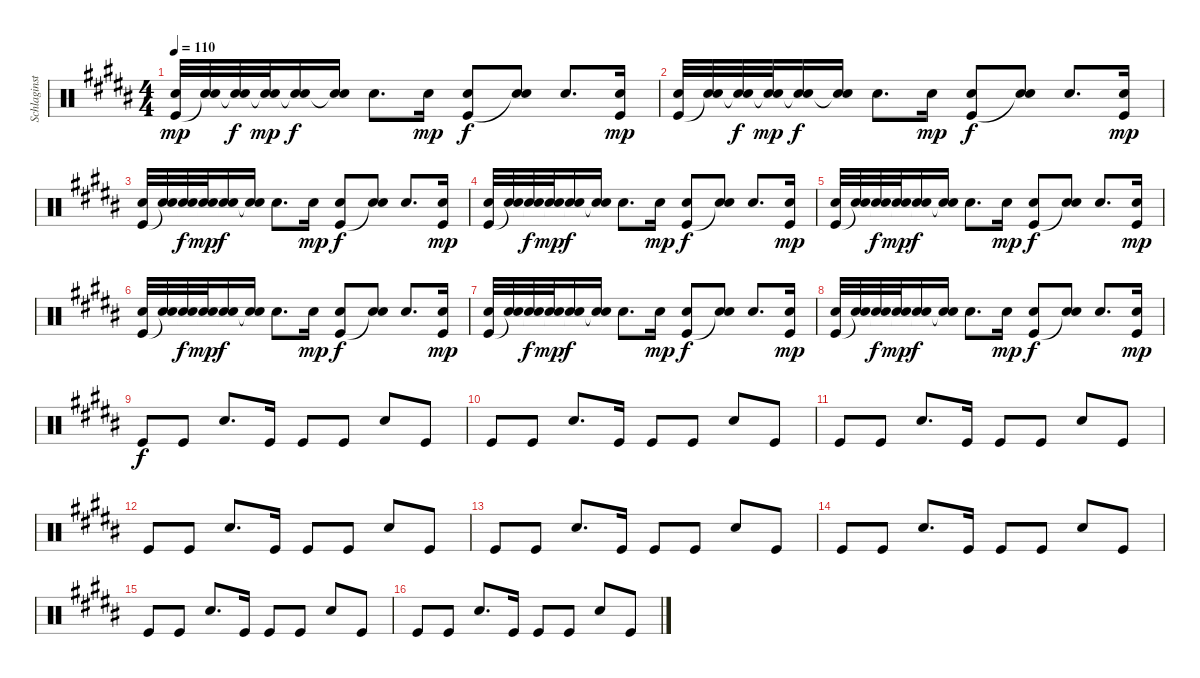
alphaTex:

\track ("Schlaginstrumente - Auswahl" "Schlaginst") {instrument percussion}
\staff {score}
\articulation defaults
\ts (4 4)
\tempo 110
\clef neutral
\ks b
("Snare (hit) 2" "Kick (hit)").32{dy mp volume 11} ("Snare (hit) 2" "Snare (hit)"{t}).32 ("Snare (hit) 2" "Snare (hit)"{t}).32{dy f} ("Snare (hit) 2" "Snare (hit)"{t}).32{dy mp} ("Snare (hit) 2" "Snare (hit)"{t}).16{dy f} ("Snare (hit) 2" "Snare (hit)"{t}).16 "Electric Snare (hit)".8{d} "Snare (hit) 2".16{dy mp} ("Electric Snare (hit)" "Kick (hit)").8{dy f} ("Electric Snare (hit)" "Snare (hit)"{t}).8 "Electric Snare (hit)".8{d} ("Snare (hit) 2" "Kick (hit)").16{dy mp} |
("Snare (hit) 2" "Kick (hit)").32 ("Snare (hit) 2" "Snare (hit)"{t}).32 ("Snare (hit) 2" "Snare (hit)"{t}).32{dy f} ("Snare (hit) 2" "Snare (hit)"{t}).32{dy mp} ("Snare (hit) 2" "Snare (hit)"{t}).16{dy f} ("Snare (hit) 2" "Snare (hit)"{t}).16 "Electric Snare (hit)".8{d} "Snare (hit) 2".16{dy mp} ("Electric Snare (hit)" "Kick (hit)").8{dy f} ("Electric Snare (hit)" "Snare (hit)"{t}).8 "Electric Snare (hit)".8{d} ("Snare (hit) 2" "Kick (hit)").16{dy mp} |
("Snare (hit) 2" "Kick (hit)").32 ("Snare (hit) 2" "Snare (hit)"{t}).32 ("Snare (hit) 2" "Snare (hit)"{t}).32{dy f} ("Snare (hit) 2" "Snare (hit)"{t}).32{dy mp} ("Snare (hit) 2" "Snare (hit)"{t}).16{dy f} ("Snare (hit) 2" "Snare (hit)"{t}).16 "Electric Snare (hit)".8{d} "Snare (hit) 2".16{dy mp} ("Electric Snare (hit)" "Kick (hit)").8{dy f} ("Electric Snare (hit)" "Snare (hit)"{t}).8 "Electric Snare (hit)".8{d} ("Snare (hit) 2" "Kick (hit)").16{dy mp} |
("Snare (hit) 2" "Kick (hit)").32 ("Snare (hit) 2" "Snare (hit)"{t}).32 ("Snare (hit) 2" "Snare (hit)"{t}).32{dy f} ("Snare (hit) 2" "Snare (hit)"{t}).32{dy mp} ("Snare (hit) 2" "Snare (hit)"{t}).16{dy f} ("Snare (hit) 2" "Snare (hit)"{t}).16 "Electric Snare (hit)".8{d} "Snare (hit) 2".16{dy mp} ("Electric Snare (hit)" "Kick (hit)").8{dy f} ("Electric Snare (hit)" "Snare (hit)"{t}).8 "Electric Snare (hit)".8{d} ("Snare (hit) 2" "Kick (hit)").16{dy mp} |
("Snare (hit) 2" "Kick (hit)").32 ("Snare (hit) 2" "Snare (hit)"{t}).32 ("Snare (hit) 2" "Snare (hit)"{t}).32{dy f} ("Snare (hit) 2" "Snare (hit)"{t}).32{dy mp} ("Snare (hit) 2" "Snare (hit)"{t}).16{dy f} ("Snare (hit) 2" "Snare (hit)"{t}).16 "Electric Snare (hit)".8{d} "Snare (hit) 2".16{dy mp} ("Electric Snare (hit)" "Kick (hit)").8{dy f} ("Electric Snare (hit)" "Snare (hit)"{t}).8 "Electric Snare (hit)".8{d} ("Snare (hit) 2" "Kick (hit)").16{dy mp} |
("Snare (hit) 2" "Kick (hit)").32 ("Snare (hit) 2" "Snare (hit)"{t}).32 ("Snare (hit) 2" "Snare (hit)"{t}).32{dy f} ("Snare (hit) 2" "Snare (hit)"{t}).32{dy mp} ("Snare (hit) 2" "Snare (hit)"{t}).16{dy f} ("Snare (hit) 2" "Snare (hit)"{t}).16 "Electric Snare (hit)".8{d} "Snare (hit) 2".16{dy mp} ("Electric Snare (hit)" "Kick (hit)").8{dy f} ("Electric Snare (hit)" "Snare (hit)"{t}).8 "Electric Snare (hit)".8{d} ("Snare (hit) 2" "Kick (hit)").16{dy mp} |
("Snare (hit) 2" "Kick (hit)").32 ("Snare (hit) 2" "Snare (hit)"{t}).32 ("Snare (hit) 2" "Snare (hit)"{t}).32{dy f} ("Snare (hit) 2" "Snare (hit)"{t}).32{dy mp} ("Snare (hit) 2" "Snare (hit)"{t}).16{dy f} ("Snare (hit) 2" "Snare (hit)"{t}).16 "Electric Snare (hit)".8{d} "Snare (hit) 2".16{dy mp} ("Electric Snare (hit)" "Kick (hit)").8{dy f} ("Electric Snare (hit)" "Snare (hit)"{t}).8 "Electric Snare (hit)".8{d} ("Snare (hit) 2" "Kick (hit)").16{dy mp} |
("Snare (hit) 2" "Kick (hit)").32 ("Snare (hit) 2" "Snare (hit)"{t}).32 ("Snare (hit) 2" "Snare (hit)"{t}).32{dy f} ("Snare (hit) 2" "Snare (hit)"{t}).32{dy mp} ("Snare (hit) 2" "Snare (hit)"{t}).16{dy f} ("Snare (hit) 2" "Snare (hit)"{t}).16 "Electric Snare (hit)".8{d} "Snare (hit) 2".16{dy mp} ("Electric Snare (hit)" "Kick (hit)").8{dy f} ("Electric Snare (hit)" "Snare (hit)"{t}).8 "Electric Snare (hit)".8{d} ("Snare (hit) 2" "Kick (hit)").16{dy mp} |
"Kick (hit)".8{dy f} "Kick (hit)".8 "Snare (hit) 2".8{d} "Kick (hit)".16 "Kick (hit)".8 "Kick (hit)".8 "Snare (hit) 2".8 "Kick (hit)".8 |
"Kick (hit)".8 "Kick (hit)".8 "Snare (hit) 2".8{d} "Kick (hit)".16 "Kick (hit)".8 "Kick (hit)".8 "Snare (hit) 2".8 "Kick (hit)".8 |
"Kick (hit)".8 "Kick (hit)".8 "Snare (hit) 2".8{d} "Kick (hit)".16 "Kick (hit)".8 "Kick (hit)".8 "Snare (hit) 2".8 "Kick (hit)".8 |
"Kick (hit)".8 "Kick (hit)".8 "Snare (hit) 2".8{d} "Kick (hit)".16 "Kick (hit)".8 "Kick (hit)".8 "Snare (hit) 2".8 "Kick (hit)".8 |
"Kick (hit)".8 "Kick (hit)".8 "Snare (hit) 2".8{d} "Kick (hit)".16 "Kick (hit)".8 "Kick (hit)".8 "Snare (hit) 2".8 "Kick (hit)".8 |
"Kick (hit)".8 "Kick (hit)".8 "Snare (hit) 2".8{d} "Kick (hit)".16 "Kick (hit)".8 "Kick (hit)".8 "Snare (hit) 2".8 "Kick (hit)".8 |
"Kick (hit)".8 "Kick (hit)".8 "Snare (hit) 2".8{d} "Kick (hit)".16 "Kick (hit)".8 "Kick (hit)".8 "Snare (hit) 2".8 "Kick (hit)".8 |
"Kick (hit)".8 "Kick (hit)".8 "Snare (hit) 2".8{d} "Kick (hit)".16 "Kick (hit)".8 "Kick (hit)".8 "Snare (hit) 2".8 "Kick (hit)".8
